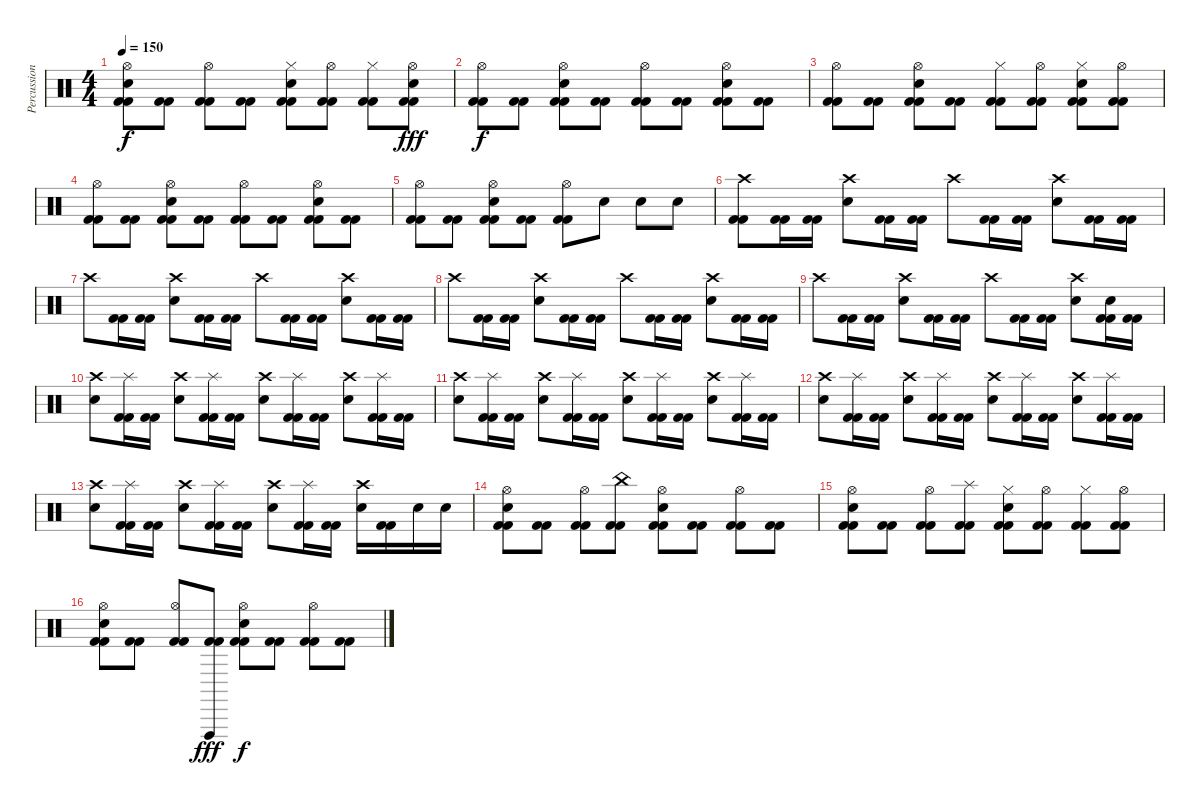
\track ("Percussions" "Percussion") {instrument percussion}
\staff {score}
\articulation defaults
\ts (4 4)
\tempo 150
\clef neutral
\ks c
("Kick (hit) 2" "Kick (hit) 2" "Electric Snare (hit)" "Hi-Hat (open)").8{dy f} ("Kick (hit) 2" "Kick (hit) 2").8 ("Kick (hit) 2" "Kick (hit) 2" "Hi-Hat (open)").8 ("Kick (hit) 2" "Kick (hit) 2").8 ("Kick (hit) 2" "Kick (hit) 2" "Electric Snare (hit)" "Hi-Hat (closed)").8 ("Kick (hit) 2" "Kick (hit) 2" "Hi-Hat (open)").8 ("Kick (hit) 2" "Kick (hit) 2" "Hi-Hat (closed)").8 ("Kick (hit) 2" "Kick (hit) 2" "Electric Snare (hit)" "Hi-Hat (open)").8{dy fff} |
("Kick (hit) 2" "Kick (hit) 2" "Hi-Hat (open)").8{dy f} ("Kick (hit) 2" "Kick (hit) 2").8 ("Kick (hit) 2" "Kick (hit) 2" "Electric Snare (hit)" "Hi-Hat (open)").8 ("Kick (hit) 2" "Kick (hit) 2").8 ("Kick (hit) 2" "Kick (hit) 2" "Hi-Hat (open)").8 ("Kick (hit) 2" "Kick (hit) 2").8 ("Kick (hit) 2" "Kick (hit) 2" "Electric Snare (hit)" "Hi-Hat (open)").8 ("Kick (hit) 2" "Kick (hit) 2").8 |
("Kick (hit) 2" "Kick (hit) 2" "Hi-Hat (open)").8 ("Kick (hit) 2" "Kick (hit) 2").8 ("Kick (hit) 2" "Kick (hit) 2" "Electric Snare (hit)" "Hi-Hat (open)").8 ("Kick (hit) 2" "Kick (hit) 2").8 ("Kick (hit) 2" "Kick (hit) 2" "Hi-Hat (closed)").8 ("Kick (hit) 2" "Kick (hit) 2" "Hi-Hat (open)").8 ("Kick (hit) 2" "Kick (hit) 2" "Electric Snare (hit)" "Hi-Hat (closed)").8 ("Kick (hit) 2" "Kick (hit) 2" "Hi-Hat (open)").8 |
("Kick (hit) 2" "Kick (hit) 2" "Hi-Hat (open)").8 ("Kick (hit) 2" "Kick (hit) 2").8 ("Kick (hit) 2" "Kick (hit) 2" "Electric Snare (hit)" "Hi-Hat (open)").8 ("Kick (hit) 2" "Kick (hit) 2").8 ("Kick (hit) 2" "Kick (hit) 2" "Hi-Hat (open)").8 ("Kick (hit) 2" "Kick (hit) 2").8 ("Kick (hit) 2" "Kick (hit) 2" "Electric Snare (hit)" "Hi-Hat (open)").8 ("Kick (hit) 2" "Kick (hit) 2").8 |
("Kick (hit) 2" "Kick (hit) 2" "Hi-Hat (open)").8 ("Kick (hit) 2" "Kick (hit) 2").8 ("Kick (hit) 2" "Kick (hit) 2" "Electric Snare (hit)" "Hi-Hat (open)").8 ("Kick (hit) 2" "Kick (hit) 2").8 ("Kick (hit) 2" "Kick (hit) 2" "Hi-Hat (open)").8 "Electric Snare (hit)".8 "Electric Snare (hit)".8 "Electric Snare (hit)".8 |
("Kick (hit) 2" "Kick (hit) 2" "Crash high (hit)").8 ("Kick (hit) 2" "Kick (hit) 2").16 ("Kick (hit) 2" "Kick (hit) 2").16 ("Electric Snare (hit)" "Crash high (hit)").8 ("Kick (hit) 2" "Kick (hit) 2").16 ("Kick (hit) 2" "Kick (hit) 2").16 "Crash high (hit)".8 ("Kick (hit) 2" "Kick (hit) 2").16 ("Kick (hit) 2" "Kick (hit) 2").16 ("Electric Snare (hit)" "Crash high (hit)").8 ("Kick (hit) 2" "Kick (hit) 2").16 ("Kick (hit) 2" "Kick (hit) 2").16 |
"Crash high (hit)".8 ("Kick (hit) 2" "Kick (hit) 2").16 ("Kick (hit) 2" "Kick (hit) 2").16 ("Electric Snare (hit)" "Crash high (hit)").8 ("Kick (hit) 2" "Kick (hit) 2").16 ("Kick (hit) 2" "Kick (hit) 2").16 "Crash high (hit)".8 ("Kick (hit) 2" "Kick (hit) 2").16 ("Kick (hit) 2" "Kick (hit) 2").16 ("Electric Snare (hit)" "Crash high (hit)").8 ("Kick (hit) 2" "Kick (hit) 2").16 ("Kick (hit) 2" "Kick (hit) 2").16 |
"Crash high (hit)".8 ("Kick (hit) 2" "Kick (hit) 2").16 ("Kick (hit) 2" "Kick (hit) 2").16 ("Electric Snare (hit)" "Crash high (hit)").8 ("Kick (hit) 2" "Kick (hit) 2").16 ("Kick (hit) 2" "Kick (hit) 2").16 "Crash high (hit)".8 ("Kick (hit) 2" "Kick (hit) 2").16 ("Kick (hit) 2" "Kick (hit) 2").16 ("Electric Snare (hit)" "Crash high (hit)").8 ("Kick (hit) 2" "Kick (hit) 2").16 ("Kick (hit) 2" "Kick (hit) 2").16 |
"Crash high (hit)".8 ("Kick (hit) 2" "Kick (hit) 2").16 ("Kick (hit) 2" "Kick (hit) 2").16 ("Electric Snare (hit)" "Crash high (hit)").8 ("Kick (hit) 2" "Kick (hit) 2").16 ("Kick (hit) 2" "Kick (hit) 2").16 "Crash high (hit)".8 ("Kick (hit) 2" "Kick (hit) 2").16 ("Kick (hit) 2" "Kick (hit) 2").16 ("Electric Snare (hit)" "Crash high (hit)").8 ("Kick (hit) 2" "Kick (hit) 2" "Electric Snare (hit)").16 ("Kick (hit) 2" "Kick (hit) 2").16 |
("Electric Snare (hit)" "Crash high (hit)").8 ("Kick (hit) 2" "Kick (hit) 2" "Splash (hit)").16 ("Kick (hit) 2" "Kick (hit) 2").16 ("Electric Snare (hit)" "Crash high (hit)").8 ("Kick (hit) 2" "Kick (hit) 2" "Splash (hit)").16 ("Kick (hit) 2" "Kick (hit) 2").16 ("Electric Snare (hit)" "Crash high (hit)").8 ("Kick (hit) 2" "Kick (hit) 2" "Splash (hit)").16 ("Kick (hit) 2" "Kick (hit) 2").16 ("Electric Snare (hit)" "Crash high (hit)").8 ("Kick (hit) 2" "Kick (hit) 2" "Splash (hit)").16 ("Kick (hit) 2" "Kick (hit) 2").16 |
("Electric Snare (hit)" "Crash high (hit)").8 ("Kick (hit) 2" "Kick (hit) 2" "Splash (hit)").16 ("Kick (hit) 2" "Kick (hit) 2").16 ("Electric Snare (hit)" "Crash high (hit)").8 ("Kick (hit) 2" "Kick (hit) 2" "Splash (hit)").16 ("Kick (hit) 2" "Kick (hit) 2").16 ("Electric Snare (hit)" "Crash high (hit)").8 ("Kick (hit) 2" "Kick (hit) 2" "Splash (hit)").16 ("Kick (hit) 2" "Kick (hit) 2").16 ("Electric Snare (hit)" "Crash high (hit)").8 ("Kick (hit) 2" "Kick (hit) 2" "Splash (hit)").16 ("Kick (hit) 2" "Kick (hit) 2").16 |
("Electric Snare (hit)" "Crash high (hit)").8 ("Kick (hit) 2" "Kick (hit) 2" "Splash (hit)").16 ("Kick (hit) 2" "Kick (hit) 2").16 ("Electric Snare (hit)" "Crash high (hit)").8 ("Kick (hit) 2" "Kick (hit) 2" "Splash (hit)").16 ("Kick (hit) 2" "Kick (hit) 2").16 ("Electric Snare (hit)" "Crash high (hit)").8 ("Kick (hit) 2" "Kick (hit) 2" "Splash (hit)").16 ("Kick (hit) 2" "Kick (hit) 2").16 ("Electric Snare (hit)" "Crash high (hit)").8 ("Kick (hit) 2" "Kick (hit) 2" "Splash (hit)").16 ("Kick (hit) 2" "Kick (hit) 2").16 |
("Electric Snare (hit)" "Crash high (hit)").8 ("Kick (hit) 2" "Kick (hit) 2" "Splash (hit)").16 ("Kick (hit) 2" "Kick (hit) 2").16 ("Electric Snare (hit)" "Crash high (hit)").8 ("Kick (hit) 2" "Kick (hit) 2" "Splash (hit)").16 ("Kick (hit) 2" "Kick (hit) 2").16 ("Electric Snare (hit)" "Crash high (hit)").8 ("Kick (hit) 2" "Kick (hit) 2" "Splash (hit)").16 ("Kick (hit) 2" "Kick (hit) 2").16 ("Electric Snare (hit)" "Crash high (hit)").16 ("Kick (hit) 2" "Kick (hit) 2").16 "Electric Snare (hit)".16 "Electric Snare (hit)".16 |
("Kick (hit) 2" "Kick (hit) 2" "Electric Snare (hit)" "Hi-Hat (open)").8 ("Kick (hit) 2" "Kick (hit) 2").8 ("Kick (hit) 2" "Kick (hit) 2" "Hi-Hat (open)").8 ("Kick (hit) 2" "Kick (hit) 2" "China (hit)").8 ("Kick (hit) 2" "Kick (hit) 2" "Electric Snare (hit)" "Hi-Hat (open)").8 ("Kick (hit) 2" "Kick (hit) 2").8 ("Kick (hit) 2" "Kick (hit) 2" "Hi-Hat (open)").8 ("Kick (hit) 2" "Kick (hit) 2").8 |
("Kick (hit) 2" "Kick (hit) 2" "Electric Snare (hit)" "Hi-Hat (open)").8 ("Kick (hit) 2" "Kick (hit) 2").8 ("Kick (hit) 2" "Kick (hit) 2" "Hi-Hat (open)").8 ("Kick (hit) 2" "Kick (hit) 2" "Splash (hit)").8 ("Kick (hit) 2" "Kick (hit) 2" "Electric Snare (hit)" "Hi-Hat (closed)").8 ("Kick (hit) 2" "Kick (hit) 2" "Hi-Hat (open)").8 ("Kick (hit) 2" "Kick (hit) 2" "Hi-Hat (closed)").8 ("Kick (hit) 2" "Kick (hit) 2" "Hi-Hat (open)").8 |
("Kick (hit) 2" "Kick (hit) 2" "Electric Snare (hit)" "Hi-Hat (open)").8 ("Kick (hit) 2" "Kick (hit) 2").8 ("Kick (hit) 2" "Kick (hit) 2" "Hi-Hat (open)").8 ("Kick (hit) 2" "Kick (hit) 2" "Vibraslap (hit)").8{dy fff} ("Kick (hit) 2" "Kick (hit) 2" "Electric Snare (hit)" "Hi-Hat (open)").8{dy f} ("Kick (hit) 2" "Kick (hit) 2").8 ("Kick (hit) 2" "Kick (hit) 2" "Hi-Hat (open)").8 ("Kick (hit) 2" "Kick (hit) 2").8
